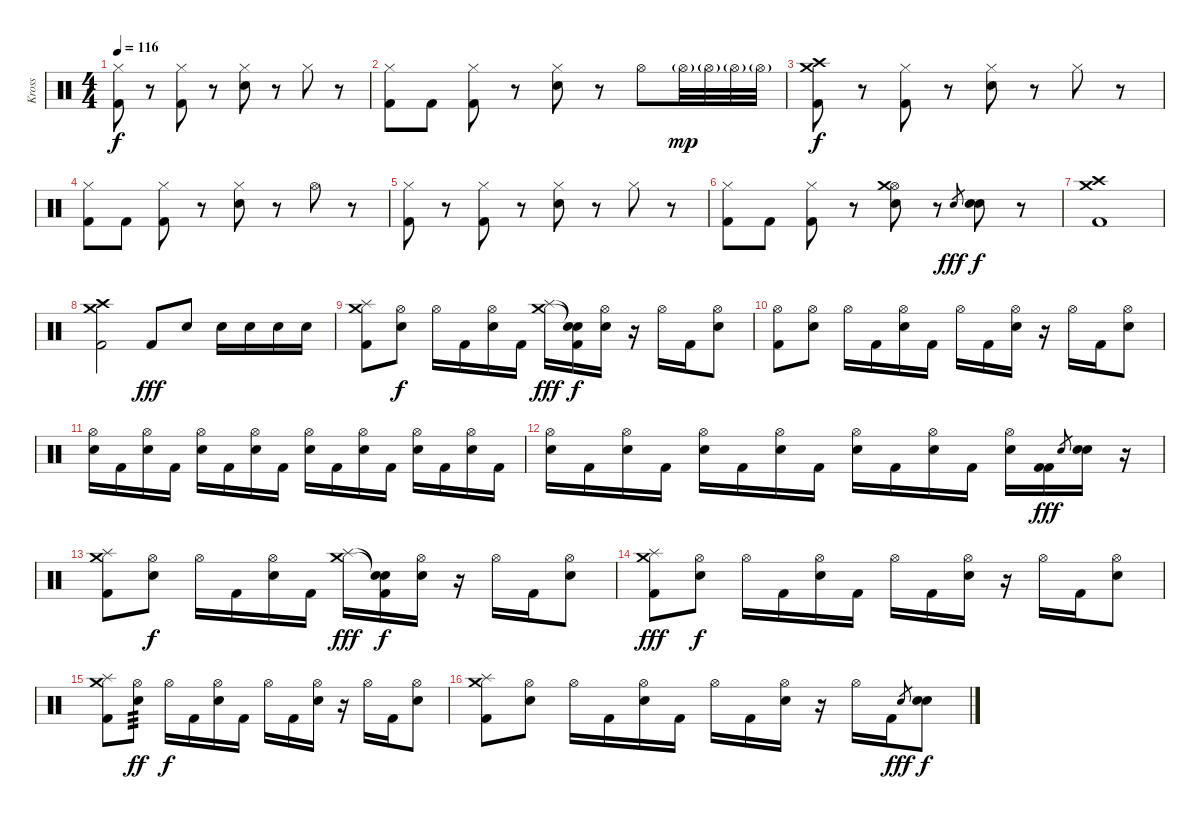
\track ("Kross" "Kross") {instrument percussion}
\staff {score}
\articulation defaults
\ts (4 4)
\tempo 116
\clef neutral
\ks c
("Hi-Hat (closed)" "Kick (hit) 2").8{dy f} r.8 ("Hi-Hat (closed)" "Kick (hit) 2").8 r.8 ("Hi-Hat (closed)" "Electric Snare (hit)").8 r.8 "Hi-Hat (closed)".8 r.8 |
("Hi-Hat (closed)" "Kick (hit) 2").8 "Kick (hit) 2".8 ("Hi-Hat (closed)" "Kick (hit) 2").8 r.8 ("Hi-Hat (closed)" "Electric Snare (hit)").8 r.8 "Hi-Hat (open)".8 "Hi-Hat (open)"{g}.32{dy mp} "Hi-Hat (open)"{g}.32 "Hi-Hat (open)"{g}.32 "Hi-Hat (open)"{g}.32 |
("Crash medium (hit)" "Crash high (hit)" "Kick (hit) 2").8{dy f} r.8 ("Hi-Hat (closed)" "Kick (hit) 2").8 r.8 ("Hi-Hat (closed)" "Electric Snare (hit)").8 r.8 "Hi-Hat (closed)".8 r.8 |
("Hi-Hat (closed)" "Kick (hit) 2").8 "Kick (hit) 2".8 ("Hi-Hat (closed)" "Kick (hit) 2").8 r.8 ("Hi-Hat (closed)" "Electric Snare (hit)").8 r.8 "Hi-Hat (open)".8 r.8 |
("Hi-Hat (closed)" "Kick (hit) 2").8 r.8 ("Hi-Hat (closed)" "Kick (hit) 2").8 r.8 ("Hi-Hat (closed)" "Electric Snare (hit)").8 r.8 "Hi-Hat (closed)".8 r.8 |
("Hi-Hat (closed)" "Kick (hit) 2").8 "Kick (hit) 2".8 ("Hi-Hat (closed)" "Kick (hit) 2").8 r.8 ("Hi-Hat (open)" "Crash medium (hit)" "Electric Snare (hit)").8 r.8 "Electric Snare (hit)".8{gr dy fff} ("Electric Snare (hit)" "Electric Snare (hit)").8{dy f} r.8 |
("Crash medium (hit)" "Crash high (hit)" "Kick (hit) 2").1 |
("Crash medium (hit)" "Crash high (hit)" "Kick (hit) 2").2 "Kick (hit) 2".8{dy fff} "Electric Snare (hit)".8 "Electric Snare (hit)".16 "Electric Snare (hit)".16 "Electric Snare (hit)".16 "Electric Snare (hit)".16 |
("Crash medium (hit)" "Splash (hit)" "Kick (hit) 2").8 ("Hi-Hat (open)" "Electric Snare (hit)").8{dy f} "Hi-Hat (open)".16 "Kick (hit) 2".16 ("Hi-Hat (open)" "Electric Snare (hit)").16 "Kick (hit) 2".16 ("Crash medium (hit)" "Splash (hit)").16{dy fff} ("Snare (hit)"{t} "Snare (hit)"{t} "Kick (hit) 2").16{dy f} ("Hi-Hat (open)" "Electric Snare (hit)").16 r.16 "Hi-Hat (open)".16 "Kick (hit) 2".16 ("Hi-Hat (open)" "Electric Snare (hit)").8 |
("Hi-Hat (open)" "Kick (hit) 2").8 ("Hi-Hat (open)" "Electric Snare (hit)").8 "Hi-Hat (open)".16 "Kick (hit) 2".16 ("Hi-Hat (open)" "Electric Snare (hit)").16 "Kick (hit) 2".16 "Hi-Hat (open)".16 "Kick (hit) 2".16 ("Hi-Hat (open)" "Electric Snare (hit)").16 r.16 "Hi-Hat (open)".16 "Kick (hit) 2".16 ("Hi-Hat (open)" "Electric Snare (hit)").8 |
("Hi-Hat (open)" "Electric Snare (hit)").16 "Kick (hit) 2".16 ("Hi-Hat (open)" "Electric Snare (hit)").16 "Kick (hit) 2".16 ("Hi-Hat (open)" "Electric Snare (hit)").16 "Kick (hit) 2".16 ("Hi-Hat (open)" "Electric Snare (hit)").16 "Kick (hit) 2".16 ("Hi-Hat (open)" "Electric Snare (hit)").16 "Kick (hit) 2".16 ("Hi-Hat (open)" "Electric Snare (hit)").16 "Kick (hit) 2".16 ("Hi-Hat (open)" "Electric Snare (hit)").16 "Kick (hit) 2".16 ("Hi-Hat (open)" "Electric Snare (hit)").16 "Kick (hit) 2".16 |
("Hi-Hat (open)" "Electric Snare (hit)").16 "Kick (hit) 2".16 ("Hi-Hat (open)" "Electric Snare (hit)").16 "Kick (hit) 2".16 ("Hi-Hat (open)" "Electric Snare (hit)").16 "Kick (hit) 2".16 ("Hi-Hat (open)" "Electric Snare (hit)").16 "Kick (hit) 2".16 ("Hi-Hat (open)" "Electric Snare (hit)").16 "Kick (hit) 2".16 ("Hi-Hat (open)" "Electric Snare (hit)").16 "Kick (hit) 2".16 ("Hi-Hat (open)" "Electric Snare (hit)").16 ("Kick (hit) 2" "Kick (hit) 2").16{dy fff} "Electric Snare (hit)".8{gr} ("Electric Snare (hit)" "Electric Snare (hit)").16 r.16 |
("Crash medium (hit)" "Splash (hit)" "Kick (hit) 2").8 ("Hi-Hat (open)" "Electric Snare (hit)").8{dy f} "Hi-Hat (open)".16 "Kick (hit) 2".16 ("Hi-Hat (open)" "Electric Snare (hit)").16 "Kick (hit) 2".16 ("Crash medium (hit)" "Splash (hit)").16{dy fff} ("Snare (hit)"{t} "Snare (hit)"{t} "Kick (hit) 2").16{dy f} ("Hi-Hat (open)" "Electric Snare (hit)").16 r.16 "Hi-Hat (open)".16 "Kick (hit) 2".16 ("Hi-Hat (open)" "Electric Snare (hit)").8 |
("Crash medium (hit)" "Splash (hit)" "Kick (hit) 2").8{dy fff} ("Hi-Hat (open)" "Electric Snare (hit)").8{dy f} "Hi-Hat (open)".16 "Kick (hit) 2".16 ("Hi-Hat (open)" "Electric Snare (hit)").16 "Kick (hit) 2".16 "Hi-Hat (open)".16 "Kick (hit) 2".16 ("Hi-Hat (open)" "Electric Snare (hit)").16 r.16 "Hi-Hat (open)".16 "Kick (hit) 2".16 ("Hi-Hat (open)" "Electric Snare (hit)").8 |
("Crash medium (hit)" "Splash (hit)" "Kick (hit) 2").8 ("Hi-Hat (open)" "Electric Snare (hit)").8{tp 3 dy ff} "Hi-Hat (open)".16{dy f} "Kick (hit) 2".16 ("Hi-Hat (open)" "Electric Snare (hit)").16 "Kick (hit) 2".16 "Hi-Hat (open)".16 "Kick (hit) 2".16 ("Hi-Hat (open)" "Electric Snare (hit)").16 r.16 "Hi-Hat (open)".16 "Kick (hit) 2".16 ("Hi-Hat (open)" "Electric Snare (hit)").8 |
("Crash medium (hit)" "Splash (hit)" "Kick (hit) 2").8 ("Hi-Hat (open)" "Electric Snare (hit)").8 "Hi-Hat (open)".16 "Kick (hit) 2".16 ("Hi-Hat (open)" "Electric Snare (hit)").16 "Kick (hit) 2".16 "Hi-Hat (open)".16 "Kick (hit) 2".16 ("Hi-Hat (open)" "Electric Snare (hit)").16 r.16 "Hi-Hat (open)".16 "Kick (hit) 2".16 "Electric Snare (hit)".8{gr dy fff} ("Electric Snare (hit)" "Electric Snare (hit)").8{dy f}
